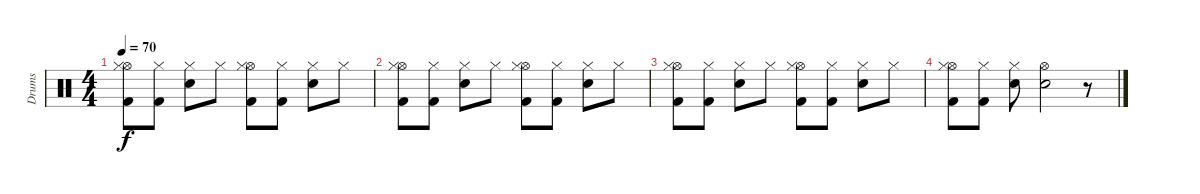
\track ("Drums" "Drums") {instrument percussion}
\staff {score}
\articulation defaults
\ts (4 4)
\tempo 70
\clef neutral
\ks c
("Hi-Hat (open)" "Hi-Hat (closed)" "Kick (hit) 2").8{dy f} ("Hi-Hat (closed)" "Kick (hit) 2").8 ("Hi-Hat (closed)" "Electric Snare (hit)").8 "Hi-Hat (closed)".8 ("Hi-Hat (open)" "Hi-Hat (closed)" "Kick (hit) 2").8 ("Hi-Hat (closed)" "Kick (hit) 2").8 ("Hi-Hat (closed)" "Electric Snare (hit)").8 "Hi-Hat (closed)".8 |
("Hi-Hat (open)" "Hi-Hat (closed)" "Kick (hit) 2").8 ("Hi-Hat (closed)" "Kick (hit) 2").8 ("Hi-Hat (closed)" "Electric Snare (hit)").8 "Hi-Hat (closed)".8 ("Hi-Hat (open)" "Hi-Hat (closed)" "Kick (hit) 2").8 ("Hi-Hat (closed)" "Kick (hit) 2").8 ("Hi-Hat (closed)" "Electric Snare (hit)").8 "Hi-Hat (closed)".8 |
("Hi-Hat (open)" "Hi-Hat (closed)" "Kick (hit) 2").8 ("Hi-Hat (closed)" "Kick (hit) 2").8 ("Hi-Hat (closed)" "Electric Snare (hit)").8 "Hi-Hat (closed)".8 ("Hi-Hat (open)" "Hi-Hat (closed)" "Kick (hit) 2").8 ("Hi-Hat (closed)" "Kick (hit) 2").8 ("Hi-Hat (closed)" "Electric Snare (hit)").8 "Hi-Hat (closed)".8 |
("Hi-Hat (open)" "Hi-Hat (closed)" "Kick (hit) 2").8 ("Hi-Hat (closed)" "Kick (hit) 2").8 ("Hi-Hat (closed)" "Electric Snare (hit)").8 ("Hi-Hat (open)" "Electric Snare (hit)").2 r.8
